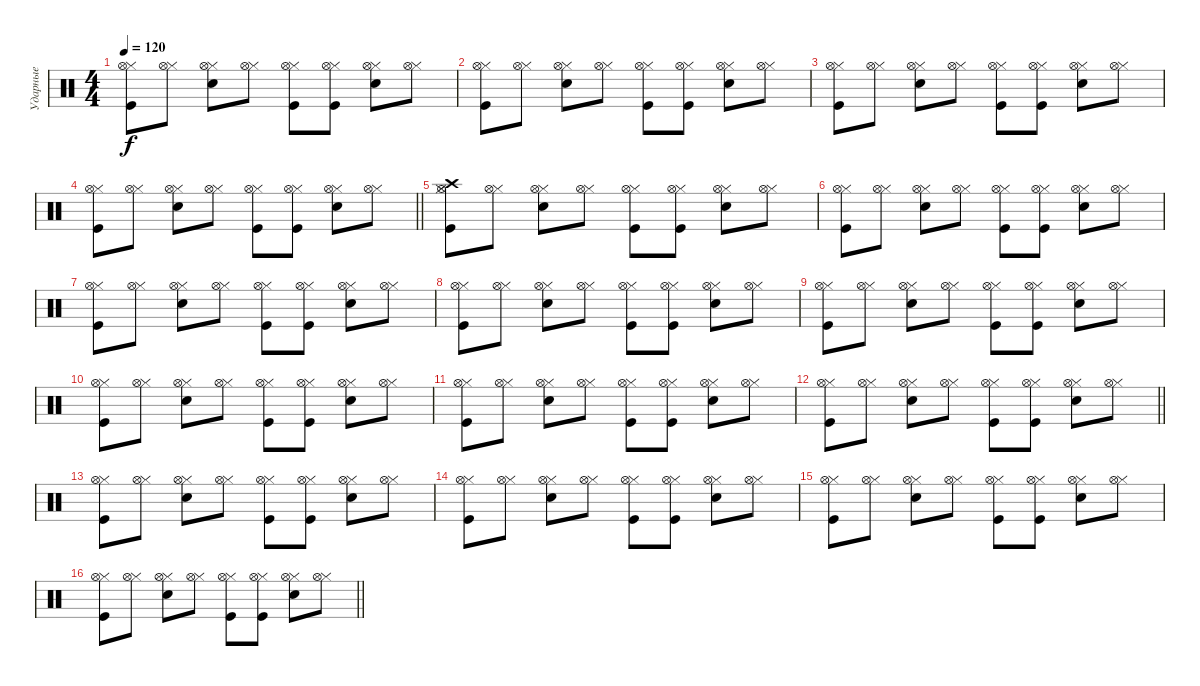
\track ("Ударные" "Ударные") {instrument percussion}
\staff {score}
\articulation defaults
\ts (4 4)
\tempo 120
\clef neutral
\ks c
("Hi-Hat (closed)" "Kick (hit)" "Hi-Hat (open)").8{dy f} ("Hi-Hat (closed)" "Hi-Hat (open)").8 ("Hi-Hat (closed)" "Snare (hit) 2" "Hi-Hat (open)").8 ("Hi-Hat (closed)" "Hi-Hat (open)").8 ("Hi-Hat (closed)" "Kick (hit)" "Hi-Hat (open)").8 ("Hi-Hat (closed)" "Kick (hit)" "Hi-Hat (open)").8 ("Hi-Hat (closed)" "Snare (hit) 2" "Hi-Hat (open)").8 ("Hi-Hat (closed)" "Hi-Hat (open)").8 |
("Hi-Hat (closed)" "Kick (hit)" "Hi-Hat (open)").8 ("Hi-Hat (closed)" "Hi-Hat (open)").8 ("Hi-Hat (closed)" "Snare (hit) 2" "Hi-Hat (open)").8 ("Hi-Hat (closed)" "Hi-Hat (open)").8 ("Hi-Hat (closed)" "Kick (hit)" "Hi-Hat (open)").8 ("Hi-Hat (closed)" "Kick (hit)" "Hi-Hat (open)").8 ("Hi-Hat (closed)" "Snare (hit) 2" "Hi-Hat (open)").8 ("Hi-Hat (closed)" "Hi-Hat (open)").8 |
("Hi-Hat (closed)" "Kick (hit)" "Hi-Hat (open)").8 ("Hi-Hat (closed)" "Hi-Hat (open)").8 ("Hi-Hat (closed)" "Snare (hit) 2" "Hi-Hat (open)").8 ("Hi-Hat (closed)" "Hi-Hat (open)").8 ("Hi-Hat (closed)" "Kick (hit)" "Hi-Hat (open)").8 ("Hi-Hat (closed)" "Kick (hit)" "Hi-Hat (open)").8 ("Hi-Hat (closed)" "Snare (hit) 2" "Hi-Hat (open)").8 ("Hi-Hat (closed)" "Hi-Hat (open)").8 |
\barLineRight lightlight
("Hi-Hat (closed)" "Kick (hit)" "Hi-Hat (open)").8 ("Hi-Hat (closed)" "Hi-Hat (open)").8 ("Hi-Hat (closed)" "Snare (hit) 2" "Hi-Hat (open)").8 ("Hi-Hat (closed)" "Hi-Hat (open)").8 ("Hi-Hat (closed)" "Kick (hit)" "Hi-Hat (open)").8 ("Hi-Hat (closed)" "Kick (hit)" "Hi-Hat (open)").8 ("Hi-Hat (closed)" "Snare (hit) 2" "Hi-Hat (open)").8 ("Hi-Hat (closed)" "Hi-Hat (open)").8 |
("Hi-Hat (closed)" "Kick (hit)" "Crash high (hit)" "Hi-Hat (open)").8 ("Hi-Hat (closed)" "Hi-Hat (open)").8 ("Hi-Hat (closed)" "Snare (hit) 2" "Hi-Hat (open)").8 ("Hi-Hat (closed)" "Hi-Hat (open)").8 ("Hi-Hat (closed)" "Kick (hit)" "Hi-Hat (open)").8 ("Hi-Hat (closed)" "Kick (hit)" "Hi-Hat (open)").8 ("Hi-Hat (closed)" "Snare (hit) 2" "Hi-Hat (open)").8 ("Hi-Hat (closed)" "Hi-Hat (open)").8 |
("Hi-Hat (closed)" "Kick (hit)" "Hi-Hat (open)").8 ("Hi-Hat (closed)" "Hi-Hat (open)").8 ("Hi-Hat (closed)" "Snare (hit) 2" "Hi-Hat (open)").8 ("Hi-Hat (closed)" "Hi-Hat (open)").8 ("Hi-Hat (closed)" "Kick (hit)" "Hi-Hat (open)").8 ("Hi-Hat (closed)" "Kick (hit)" "Hi-Hat (open)").8 ("Hi-Hat (closed)" "Snare (hit) 2" "Hi-Hat (open)").8 ("Hi-Hat (closed)" "Hi-Hat (open)").8 |
("Hi-Hat (closed)" "Kick (hit)" "Hi-Hat (open)").8 ("Hi-Hat (closed)" "Hi-Hat (open)").8 ("Hi-Hat (closed)" "Snare (hit) 2" "Hi-Hat (open)").8 ("Hi-Hat (closed)" "Hi-Hat (open)").8 ("Hi-Hat (closed)" "Kick (hit)" "Hi-Hat (open)").8 ("Hi-Hat (closed)" "Kick (hit)" "Hi-Hat (open)").8 ("Hi-Hat (closed)" "Snare (hit) 2" "Hi-Hat (open)").8 ("Hi-Hat (closed)" "Hi-Hat (open)").8 |
("Hi-Hat (closed)" "Kick (hit)" "Hi-Hat (open)").8 ("Hi-Hat (closed)" "Hi-Hat (open)").8 ("Hi-Hat (closed)" "Snare (hit) 2" "Hi-Hat (open)").8 ("Hi-Hat (closed)" "Hi-Hat (open)").8 ("Hi-Hat (closed)" "Kick (hit)" "Hi-Hat (open)").8 ("Hi-Hat (closed)" "Kick (hit)" "Hi-Hat (open)").8 ("Hi-Hat (closed)" "Snare (hit) 2" "Hi-Hat (open)").8 ("Hi-Hat (closed)" "Hi-Hat (open)").8 |
("Hi-Hat (closed)" "Kick (hit)" "Hi-Hat (open)").8 ("Hi-Hat (closed)" "Hi-Hat (open)").8 ("Hi-Hat (closed)" "Snare (hit) 2" "Hi-Hat (open)").8 ("Hi-Hat (closed)" "Hi-Hat (open)").8 ("Hi-Hat (closed)" "Kick (hit)" "Hi-Hat (open)").8 ("Hi-Hat (closed)" "Kick (hit)" "Hi-Hat (open)").8 ("Hi-Hat (closed)" "Snare (hit) 2" "Hi-Hat (open)").8 ("Hi-Hat (closed)" "Hi-Hat (open)").8 |
("Hi-Hat (closed)" "Kick (hit)" "Hi-Hat (open)").8 ("Hi-Hat (closed)" "Hi-Hat (open)").8 ("Hi-Hat (closed)" "Snare (hit) 2" "Hi-Hat (open)").8 ("Hi-Hat (closed)" "Hi-Hat (open)").8 ("Hi-Hat (closed)" "Kick (hit)" "Hi-Hat (open)").8 ("Hi-Hat (closed)" "Kick (hit)" "Hi-Hat (open)").8 ("Hi-Hat (closed)" "Snare (hit) 2" "Hi-Hat (open)").8 ("Hi-Hat (closed)" "Hi-Hat (open)").8 |
("Hi-Hat (closed)" "Kick (hit)" "Hi-Hat (open)").8 ("Hi-Hat (closed)" "Hi-Hat (open)").8 ("Hi-Hat (closed)" "Snare (hit) 2" "Hi-Hat (open)").8 ("Hi-Hat (closed)" "Hi-Hat (open)").8 ("Hi-Hat (closed)" "Kick (hit)" "Hi-Hat (open)").8 ("Hi-Hat (closed)" "Kick (hit)" "Hi-Hat (open)").8 ("Hi-Hat (closed)" "Snare (hit) 2" "Hi-Hat (open)").8 ("Hi-Hat (closed)" "Hi-Hat (open)").8 |
\barLineRight lightlight
("Hi-Hat (closed)" "Kick (hit)" "Hi-Hat (open)").8 ("Hi-Hat (closed)" "Hi-Hat (open)").8 ("Hi-Hat (closed)" "Snare (hit) 2" "Hi-Hat (open)").8 ("Hi-Hat (closed)" "Hi-Hat (open)").8 ("Hi-Hat (closed)" "Kick (hit)" "Hi-Hat (open)").8 ("Hi-Hat (closed)" "Kick (hit)" "Hi-Hat (open)").8 ("Hi-Hat (closed)" "Snare (hit) 2" "Hi-Hat (open)").8 ("Hi-Hat (closed)" "Hi-Hat (open)").8 |
("Hi-Hat (closed)" "Kick (hit)" "Hi-Hat (open)").8 ("Hi-Hat (closed)" "Hi-Hat (open)").8 ("Hi-Hat (closed)" "Snare (hit) 2" "Hi-Hat (open)").8 ("Hi-Hat (closed)" "Hi-Hat (open)").8 ("Hi-Hat (closed)" "Kick (hit)" "Hi-Hat (open)").8 ("Hi-Hat (closed)" "Kick (hit)" "Hi-Hat (open)").8 ("Hi-Hat (closed)" "Snare (hit) 2" "Hi-Hat (open)").8 ("Hi-Hat (closed)" "Hi-Hat (open)").8 |
("Hi-Hat (closed)" "Kick (hit)" "Hi-Hat (open)").8 ("Hi-Hat (closed)" "Hi-Hat (open)").8 ("Hi-Hat (closed)" "Snare (hit) 2" "Hi-Hat (open)").8 ("Hi-Hat (closed)" "Hi-Hat (open)").8 ("Hi-Hat (closed)" "Kick (hit)" "Hi-Hat (open)").8 ("Hi-Hat (closed)" "Kick (hit)" "Hi-Hat (open)").8 ("Hi-Hat (closed)" "Snare (hit) 2" "Hi-Hat (open)").8 ("Hi-Hat (closed)" "Hi-Hat (open)").8 |
("Hi-Hat (closed)" "Kick (hit)" "Hi-Hat (open)").8 ("Hi-Hat (closed)" "Hi-Hat (open)").8 ("Hi-Hat (closed)" "Snare (hit) 2" "Hi-Hat (open)").8 ("Hi-Hat (closed)" "Hi-Hat (open)").8 ("Hi-Hat (closed)" "Kick (hit)" "Hi-Hat (open)").8 ("Hi-Hat (closed)" "Kick (hit)" "Hi-Hat (open)").8 ("Hi-Hat (closed)" "Snare (hit) 2" "Hi-Hat (open)").8 ("Hi-Hat (closed)" "Hi-Hat (open)").8 |
\barLineRight lightlight
("Hi-Hat (closed)" "Kick (hit)" "Hi-Hat (open)").8 ("Hi-Hat (closed)" "Hi-Hat (open)").8 ("Hi-Hat (closed)" "Snare (hit) 2" "Hi-Hat (open)").8 ("Hi-Hat (closed)" "Hi-Hat (open)").8 ("Hi-Hat (closed)" "Kick (hit)" "Hi-Hat (open)").8 ("Hi-Hat (closed)" "Kick (hit)" "Hi-Hat (open)").8 ("Hi-Hat (closed)" "Snare (hit) 2" "Hi-Hat (open)").8 ("Hi-Hat (closed)" "Hi-Hat (open)").8
